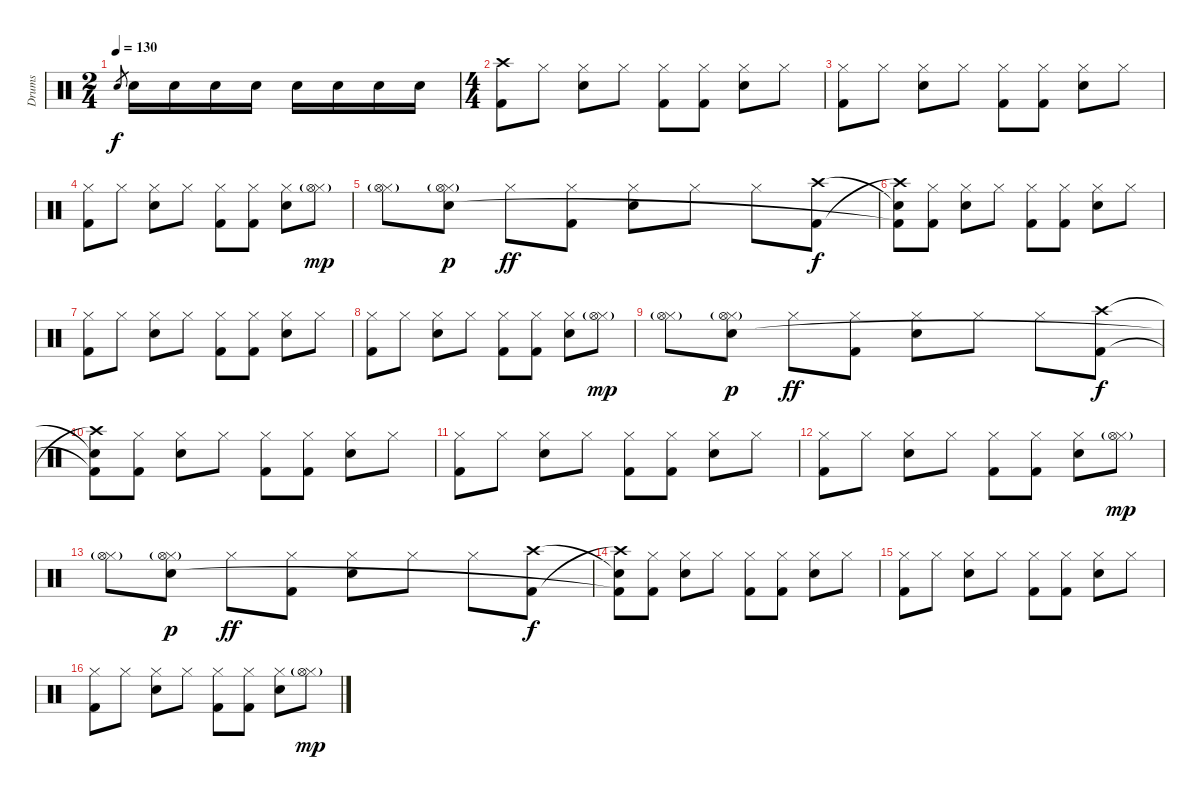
\track ("Drums" "Drums") {instrument percussion}
\staff {score}
\articulation defaults
\ts (2 4)
\tempo 130
\clef neutral
\ks c "Snare (hit) 2".8{gr dy f} "Snare (hit) 2".16 "Snare (hit) 2".16 "Snare (hit) 2".16 "Snare (hit) 2".16 "Snare (hit) 2".16 "Snare (hit) 2".16 "Snare (hit) 2".16 "Snare (hit) 2".16
|
\ts (4 4)
("Crash high (hit)" "Kick (hit) 2").8 "Hi-Hat (closed)".8 ("Hi-Hat (closed)" "Electric Snare (hit)").8 "Hi-Hat (closed)".8 ("Hi-Hat (closed)" "Kick (hit) 2").8 ("Hi-Hat (closed)" "Kick (hit) 2").8 ("Hi-Hat (closed)" "Electric Snare (hit)").8 "Hi-Hat (closed)".8 |
("Hi-Hat (closed)" "Kick (hit) 2").8 "Hi-Hat (closed)".8 ("Hi-Hat (closed)" "Electric Snare (hit)").8 "Hi-Hat (closed)".8 ("Hi-Hat (closed)" "Kick (hit) 2").8 ("Hi-Hat (closed)" "Kick (hit) 2").8 ("Hi-Hat (closed)" "Electric Snare (hit)").8 "Hi-Hat (closed)".8 |
("Hi-Hat (closed)" "Kick (hit) 2").8 "Hi-Hat (closed)".8 ("Hi-Hat (closed)" "Electric Snare (hit)").8 "Hi-Hat (closed)".8 ("Hi-Hat (closed)" "Kick (hit) 2").8 ("Hi-Hat (closed)" "Kick (hit) 2").8 ("Hi-Hat (closed)" "Electric Snare (hit)").8 ("Hi-Hat (closed)" "Hi-Hat (open)"{g}).8{dy mp} |
("Hi-Hat (closed)" "Hi-Hat (open)"{g}).8 ("Hi-Hat (closed)" "Hi-Hat (open)"{g} "Electric Snare (hit)").8{dy p} "Hi-Hat (closed)".8{dy ff} ("Hi-Hat (closed)" "Kick (hit) 2").8 ("Hi-Hat (closed)" "Electric Snare (hit)").8 "Hi-Hat (closed)".8 "Hi-Hat (closed)".8 ("Crash high (hit)" "Kick (hit) 2").8{dy f} |
("Snare (hit)"{t} "Crash high (hit)"{t} "Kick (hit) 2"{t}).8 ("Hi-Hat (closed)" "Kick (hit) 2").8 ("Hi-Hat (closed)" "Electric Snare (hit)").8 "Hi-Hat (closed)".8 ("Hi-Hat (closed)" "Kick (hit) 2").8 ("Hi-Hat (closed)" "Kick (hit) 2").8 ("Hi-Hat (closed)" "Electric Snare (hit)").8 "Hi-Hat (closed)".8 |
("Hi-Hat (closed)" "Kick (hit) 2").8 "Hi-Hat (closed)".8 ("Hi-Hat (closed)" "Electric Snare (hit)").8 "Hi-Hat (closed)".8 ("Hi-Hat (closed)" "Kick (hit) 2").8 ("Hi-Hat (closed)" "Kick (hit) 2").8 ("Hi-Hat (closed)" "Electric Snare (hit)").8 "Hi-Hat (closed)".8 |
("Hi-Hat (closed)" "Kick (hit) 2").8 "Hi-Hat (closed)".8 ("Hi-Hat (closed)" "Electric Snare (hit)").8 "Hi-Hat (closed)".8 ("Hi-Hat (closed)" "Kick (hit) 2").8 ("Hi-Hat (closed)" "Kick (hit) 2").8 ("Hi-Hat (closed)" "Electric Snare (hit)").8 ("Hi-Hat (closed)" "Hi-Hat (open)"{g}).8{dy mp} |
("Hi-Hat (closed)" "Hi-Hat (open)"{g}).8 ("Hi-Hat (closed)" "Hi-Hat (open)"{g} "Electric Snare (hit)").8{dy p} "Hi-Hat (closed)".8{dy ff} ("Hi-Hat (closed)" "Kick (hit) 2").8 ("Hi-Hat (closed)" "Electric Snare (hit)").8 "Hi-Hat (closed)".8 "Hi-Hat (closed)".8 ("Crash high (hit)" "Kick (hit) 2").8{dy f} |
("Snare (hit)"{t} "Crash high (hit)"{t} "Kick (hit) 2"{t}).8 ("Hi-Hat (closed)" "Kick (hit) 2").8 ("Hi-Hat (closed)" "Electric Snare (hit)").8 "Hi-Hat (closed)".8 ("Hi-Hat (closed)" "Kick (hit) 2").8 ("Hi-Hat (closed)" "Kick (hit) 2").8 ("Hi-Hat (closed)" "Electric Snare (hit)").8 "Hi-Hat (closed)".8 |
("Hi-Hat (closed)" "Kick (hit) 2").8 "Hi-Hat (closed)".8 ("Hi-Hat (closed)" "Electric Snare (hit)").8 "Hi-Hat (closed)".8 ("Hi-Hat (closed)" "Kick (hit) 2").8 ("Hi-Hat (closed)" "Kick (hit) 2").8 ("Hi-Hat (closed)" "Electric Snare (hit)").8 "Hi-Hat (closed)".8 |
("Hi-Hat (closed)" "Kick (hit) 2").8 "Hi-Hat (closed)".8 ("Hi-Hat (closed)" "Electric Snare (hit)").8 "Hi-Hat (closed)".8 ("Hi-Hat (closed)" "Kick (hit) 2").8 ("Hi-Hat (closed)" "Kick (hit) 2").8 ("Hi-Hat (closed)" "Electric Snare (hit)").8 ("Hi-Hat (closed)" "Hi-Hat (open)"{g}).8{dy mp} |
("Hi-Hat (closed)" "Hi-Hat (open)"{g}).8 ("Hi-Hat (closed)" "Hi-Hat (open)"{g} "Electric Snare (hit)").8{dy p} "Hi-Hat (closed)".8{dy ff} ("Hi-Hat (closed)" "Kick (hit) 2").8 ("Hi-Hat (closed)" "Electric Snare (hit)").8 "Hi-Hat (closed)".8 "Hi-Hat (closed)".8 ("Crash high (hit)" "Kick (hit) 2").8{dy f} |
("Snare (hit)"{t} "Crash high (hit)"{t} "Kick (hit) 2"{t}).8 ("Hi-Hat (closed)" "Kick (hit) 2").8 ("Hi-Hat (closed)" "Electric Snare (hit)").8 "Hi-Hat (closed)".8 ("Hi-Hat (closed)" "Kick (hit) 2").8 ("Hi-Hat (closed)" "Kick (hit) 2").8 ("Hi-Hat (closed)" "Electric Snare (hit)").8 "Hi-Hat (closed)".8 |
("Hi-Hat (closed)" "Kick (hit) 2").8 "Hi-Hat (closed)".8 ("Hi-Hat (closed)" "Electric Snare (hit)").8 "Hi-Hat (closed)".8 ("Hi-Hat (closed)" "Kick (hit) 2").8 ("Hi-Hat (closed)" "Kick (hit) 2").8 ("Hi-Hat (closed)" "Electric Snare (hit)").8 "Hi-Hat (closed)".8 |
("Hi-Hat (closed)" "Kick (hit) 2").8 "Hi-Hat (closed)".8 ("Hi-Hat (closed)" "Electric Snare (hit)").8 "Hi-Hat (closed)".8 ("Hi-Hat (closed)" "Kick (hit) 2").8 ("Hi-Hat (closed)" "Kick (hit) 2").8 ("Hi-Hat (closed)" "Electric Snare (hit)").8 ("Hi-Hat (closed)" "Hi-Hat (open)"{g}).8{dy mp}
